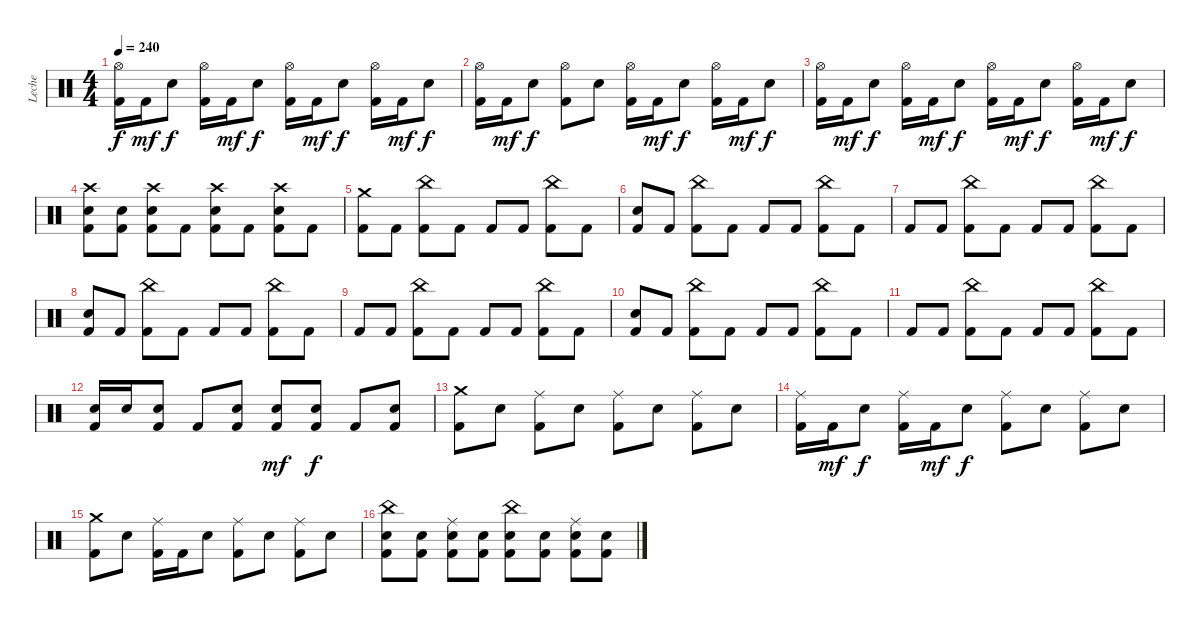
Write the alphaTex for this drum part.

\track ("Leche" "Leche") {instrument percussion}
\staff {score}
\articulation defaults
\ts (4 4)
\tempo 240
\clef neutral
\ks c
("Hi-Hat (open)" "Kick (hit) 2").16{dy f} "Kick (hit) 2".16{dy mf} "Electric Snare (hit)".8{dy f} ("Hi-Hat (open)" "Kick (hit) 2").16 "Kick (hit) 2".16{dy mf} "Electric Snare (hit)".8{dy f} ("Hi-Hat (open)" "Kick (hit) 2").16 "Kick (hit) 2".16{dy mf} "Electric Snare (hit)".8{dy f} ("Hi-Hat (open)" "Kick (hit) 2").16 "Kick (hit) 2".16{dy mf} "Electric Snare (hit)".8{dy f} |
("Hi-Hat (open)" "Kick (hit) 2").16 "Kick (hit) 2".16{dy mf} "Electric Snare (hit)".8{dy f} ("Hi-Hat (open)" "Kick (hit) 2").8 "Electric Snare (hit)".8 ("Hi-Hat (open)" "Kick (hit) 2").16 "Kick (hit) 2".16{dy mf} "Electric Snare (hit)".8{dy f} ("Hi-Hat (open)" "Kick (hit) 2").16 "Kick (hit) 2".16{dy mf} "Electric Snare (hit)".8{dy f} |
("Hi-Hat (open)" "Kick (hit) 2").16 "Kick (hit) 2".16{dy mf} "Electric Snare (hit)".8{dy f} ("Hi-Hat (open)" "Kick (hit) 2").16 "Kick (hit) 2".16{dy mf} "Electric Snare (hit)".8{dy f} ("Hi-Hat (open)" "Kick (hit) 2").16 "Kick (hit) 2".16{dy mf} "Electric Snare (hit)".8{dy f} ("Hi-Hat (open)" "Kick (hit) 2").16 "Kick (hit) 2".16{dy mf} "Electric Snare (hit)".8{dy f} |
("Crash high (hit)" "Electric Snare (hit)" "Kick (hit) 2").8 ("Electric Snare (hit)" "Kick (hit) 2").8 ("Crash high (hit)" "Electric Snare (hit)" "Kick (hit) 2").8 "Kick (hit) 2".8 ("Crash high (hit)" "Electric Snare (hit)" "Kick (hit) 2").8 "Kick (hit) 2".8 ("Crash high (hit)" "Electric Snare (hit)" "Kick (hit) 2").8 "Kick (hit) 2".8 |
("Crash medium (hit)" "Kick (hit) 2").8 "Kick (hit) 2".8 ("China (hit)" "Kick (hit) 2").8 "Kick (hit) 2".8 "Kick (hit) 2".8 "Kick (hit) 2".8 ("China (hit)" "Kick (hit) 2").8 "Kick (hit) 2".8 |
("Electric Snare (hit)" "Kick (hit) 2").8 "Kick (hit) 2".8 ("China (hit)" "Kick (hit) 2").8 "Kick (hit) 2".8 "Kick (hit) 2".8 "Kick (hit) 2".8 ("China (hit)" "Kick (hit) 2").8 "Kick (hit) 2".8 |
"Kick (hit) 2".8 "Kick (hit) 2".8 ("China (hit)" "Kick (hit) 2").8 "Kick (hit) 2".8 "Kick (hit) 2".8 "Kick (hit) 2".8 ("China (hit)" "Kick (hit) 2").8 "Kick (hit) 2".8 |
("Electric Snare (hit)" "Kick (hit) 2").8 "Kick (hit) 2".8 ("China (hit)" "Kick (hit) 2").8 "Kick (hit) 2".8 "Kick (hit) 2".8 "Kick (hit) 2".8 ("China (hit)" "Kick (hit) 2").8 "Kick (hit) 2".8 |
"Kick (hit) 2".8 "Kick (hit) 2".8 ("China (hit)" "Kick (hit) 2").8 "Kick (hit) 2".8 "Kick (hit) 2".8 "Kick (hit) 2".8 ("China (hit)" "Kick (hit) 2").8 "Kick (hit) 2".8 |
("Electric Snare (hit)" "Kick (hit) 2").8 "Kick (hit) 2".8 ("China (hit)" "Kick (hit) 2").8 "Kick (hit) 2".8 "Kick (hit) 2".8 "Kick (hit) 2".8 ("China (hit)" "Kick (hit) 2").8 "Kick (hit) 2".8 |
"Kick (hit) 2".8 "Kick (hit) 2".8 ("China (hit)" "Kick (hit) 2").8 "Kick (hit) 2".8 "Kick (hit) 2".8 "Kick (hit) 2".8 ("China (hit)" "Kick (hit) 2").8 "Kick (hit) 2".8 |
("Electric Snare (hit)" "Kick (hit) 2").16 "Electric Snare (hit)".16 ("Electric Snare (hit)" "Kick (hit) 2").8 "Kick (hit) 2".8 ("Electric Snare (hit)" "Kick (hit) 2").8 ("Electric Snare (hit)" "Kick (hit) 2").8{dy mf} ("Electric Snare (hit)" "Kick (hit) 2").8{dy f} "Kick (hit) 2".8 ("Electric Snare (hit)" "Kick (hit) 2").8 |
("Crash medium (hit)" "Kick (hit) 2").8 "Electric Snare (hit)".8 ("Ride (middle)" "Kick (hit) 2").8 "Electric Snare (hit)".8 ("Ride (middle)" "Kick (hit) 2").8 "Electric Snare (hit)".8 ("Ride (middle)" "Kick (hit) 2").8 "Electric Snare (hit)".8 |
("Ride (middle)" "Kick (hit) 2").16 "Kick (hit) 2".16{dy mf} "Electric Snare (hit)".8{dy f} ("Ride (middle)" "Kick (hit) 2").16 "Kick (hit) 2".16{dy mf} "Electric Snare (hit)".8{dy f} ("Ride (middle)" "Kick (hit) 2").8 "Electric Snare (hit)".8 ("Ride (middle)" "Kick (hit) 2").8 "Electric Snare (hit)".8 |
("Crash medium (hit)" "Kick (hit) 2").8 "Electric Snare (hit)".8 ("Ride (middle)" "Kick (hit) 2").16 "Kick (hit) 2".16 "Electric Snare (hit)".8 ("Ride (middle)" "Kick (hit) 2").8 "Electric Snare (hit)".8 ("Ride (middle)" "Kick (hit) 2").8 "Electric Snare (hit)".8 |
("China (hit)" "Electric Snare (hit)" "Kick (hit) 2").8 ("Electric Snare (hit)" "Kick (hit) 2").8 ("Ride (middle)" "Electric Snare (hit)" "Kick (hit) 2").8 ("Electric Snare (hit)" "Kick (hit) 2").8 ("China (hit)" "Electric Snare (hit)" "Kick (hit) 2").8 ("Electric Snare (hit)" "Kick (hit) 2").8 ("Ride (middle)" "Electric Snare (hit)" "Kick (hit) 2").8 ("Electric Snare (hit)" "Kick (hit) 2").8
